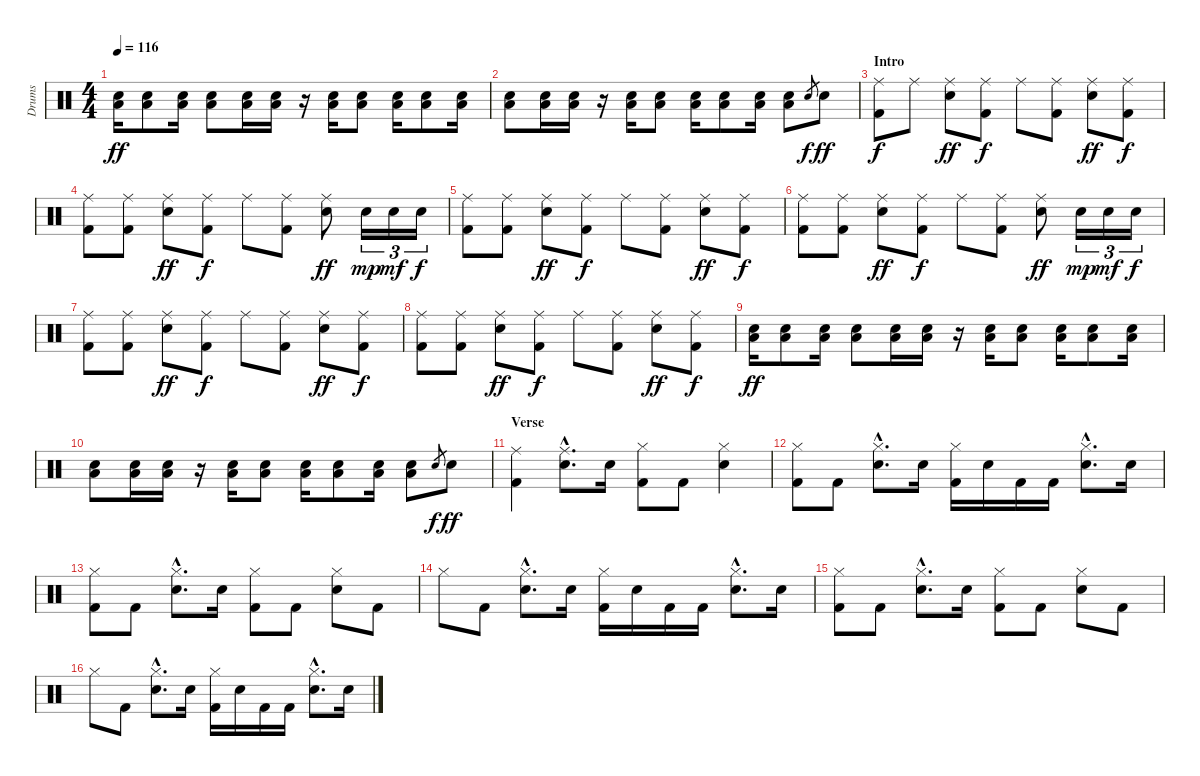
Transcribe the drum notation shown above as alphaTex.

\track ("Drums" "Drums") {instrument percussion}
\staff {score}
\articulation defaults
\ts (4 4)
\tempo 116
\clef neutral
\ks c
("Low Tom (hit)" "Electric Snare (hit)").16{dy ff volume 6} ("Low Tom (hit)" "Electric Snare (hit)").8 ("Low Tom (hit)" "Electric Snare (hit)").16 ("Low Tom (hit)" "Electric Snare (hit)").8{volume 12} ("Low Tom (hit)" "Electric Snare (hit)").16 ("Low Tom (hit)" "Electric Snare (hit)").16 r.16 ("Low Tom (hit)" "Electric Snare (hit)").16 ("Low Tom (hit)" "Electric Snare (hit)").8 ("Low Tom (hit)" "Electric Snare (hit)").16 ("Low Tom (hit)" "Electric Snare (hit)").8 ("Low Tom (hit)" "Electric Snare (hit)").16 |
("Low Tom (hit)" "Electric Snare (hit)").8 ("Low Tom (hit)" "Electric Snare (hit)").16 ("Low Tom (hit)" "Electric Snare (hit)").16 r.16 ("Low Tom (hit)" "Electric Snare (hit)").16 ("Low Tom (hit)" "Electric Snare (hit)").8 ("Low Tom (hit)" "Electric Snare (hit)").16 ("Low Tom (hit)" "Electric Snare (hit)").8 ("Low Tom (hit)" "Electric Snare (hit)").16 ("Low Tom (hit)" "Electric Snare (hit)").8 "Electric Snare (hit)".8{gr dy f} "Electric Snare (hit)".8{dy ff} |
\section ("" "Intro")
("Ride (middle)" "Kick (hit) 2").8{dy f} "Ride (middle)".8 ("Ride (middle)" "Electric Snare (hit)").8{dy ff} ("Ride (middle)" "Kick (hit) 2").8{dy f} "Ride (middle)".8 ("Ride (middle)" "Kick (hit) 2").8 ("Ride (middle)" "Electric Snare (hit)").8{dy ff} ("Ride (middle)" "Kick (hit) 2").8{dy f} |
("Ride (middle)" "Kick (hit) 2").8 ("Ride (middle)" "Kick (hit) 2").8 ("Ride (middle)" "Electric Snare (hit)").8{dy ff} ("Ride (middle)" "Kick (hit) 2").8{dy f} "Ride (middle)".8 ("Ride (middle)" "Kick (hit) 2").8 ("Ride (middle)" "Electric Snare (hit)").8{dy ff} "Electric Snare (hit)".16{tu (3 2) dy mp} "Electric Snare (hit)".16{tu (3 2) dy mf} "Electric Snare (hit)".16{tu (3 2) dy f} |
("Ride (middle)" "Kick (hit) 2").8 ("Ride (middle)" "Kick (hit) 2").8 ("Ride (middle)" "Electric Snare (hit)").8{dy ff} ("Ride (middle)" "Kick (hit) 2").8{dy f} "Ride (middle)".8 ("Ride (middle)" "Kick (hit) 2").8 ("Ride (middle)" "Electric Snare (hit)").8{dy ff} ("Ride (middle)" "Kick (hit) 2").8{dy f} |
("Ride (middle)" "Kick (hit) 2").8 ("Ride (middle)" "Kick (hit) 2").8 ("Ride (middle)" "Electric Snare (hit)").8{dy ff} ("Ride (middle)" "Kick (hit) 2").8{dy f} "Ride (middle)".8 ("Ride (middle)" "Kick (hit) 2").8 ("Ride (middle)" "Electric Snare (hit)").8{dy ff} "Electric Snare (hit)".16{tu (3 2) dy mp} "Electric Snare (hit)".16{tu (3 2) dy mf} "Electric Snare (hit)".16{tu (3 2) dy f} |
("Ride (middle)" "Kick (hit) 2").8 ("Ride (middle)" "Kick (hit) 2").8 ("Ride (middle)" "Electric Snare (hit)").8{dy ff} ("Ride (middle)" "Kick (hit) 2").8{dy f} "Ride (middle)".8 ("Ride (middle)" "Kick (hit) 2").8 ("Ride (middle)" "Electric Snare (hit)").8{dy ff} ("Ride (middle)" "Kick (hit) 2").8{dy f} |
("Ride (middle)" "Kick (hit) 2").8 ("Ride (middle)" "Kick (hit) 2").8 ("Ride (middle)" "Electric Snare (hit)").8{dy ff} ("Ride (middle)" "Kick (hit) 2").8{dy f} "Ride (middle)".8 ("Ride (middle)" "Kick (hit) 2").8 ("Ride (middle)" "Electric Snare (hit)").8{dy ff} ("Ride (middle)" "Kick (hit) 2").8{dy f} |
("Low Tom (hit)" "Electric Snare (hit)").16{dy ff} ("Low Tom (hit)" "Electric Snare (hit)").8 ("Low Tom (hit)" "Electric Snare (hit)").16 ("Low Tom (hit)" "Electric Snare (hit)").8 ("Low Tom (hit)" "Electric Snare (hit)").16 ("Low Tom (hit)" "Electric Snare (hit)").16 r.16 ("Low Tom (hit)" "Electric Snare (hit)").16 ("Low Tom (hit)" "Electric Snare (hit)").8 ("Low Tom (hit)" "Electric Snare (hit)").16 ("Low Tom (hit)" "Electric Snare (hit)").8 ("Low Tom (hit)" "Electric Snare (hit)").16 |
("Low Tom (hit)" "Electric Snare (hit)").8 ("Low Tom (hit)" "Electric Snare (hit)").16 ("Low Tom (hit)" "Electric Snare (hit)").16 r.16 ("Low Tom (hit)" "Electric Snare (hit)").16 ("Low Tom (hit)" "Electric Snare (hit)").8 ("Low Tom (hit)" "Electric Snare (hit)").16 ("Low Tom (hit)" "Electric Snare (hit)").8 ("Low Tom (hit)" "Electric Snare (hit)").16 ("Low Tom (hit)" "Electric Snare (hit)").8 "Electric Snare (hit)".8{gr dy f} "Electric Snare (hit)".8{dy ff} |
\section ("" "Verse")
("Ride (middle)" "Kick (hit) 2").4 ("Ride (middle)" "Electric Snare (hit)"{hac}).8{d} "Electric Snare (hit)".16 ("Hi-Hat (closed)" "Kick (hit) 2").8 "Kick (hit) 2".8 ("Hi-Hat (closed)" "Electric Snare (hit)").4 |
("Hi-Hat (closed)" "Kick (hit) 2").8 "Kick (hit) 2".8 ("Hi-Hat (closed)"{hac} "Electric Snare (hit)"{hac}).8{d} "Electric Snare (hit)".16 ("Hi-Hat (closed)" "Kick (hit) 2").16 "Electric Snare (hit)".16 "Kick (hit) 2".16 "Kick (hit) 2".16 ("Hi-Hat (closed)"{hac} "Electric Snare (hit)"{hac}).8{d} "Electric Snare (hit)".16 |
("Hi-Hat (closed)" "Kick (hit) 2").8 "Kick (hit) 2".8 ("Hi-Hat (closed)" "Electric Snare (hit)"{hac}).8{d} "Electric Snare (hit)".16 ("Hi-Hat (closed)" "Kick (hit) 2").8 "Kick (hit) 2".8 ("Hi-Hat (closed)" "Electric Snare (hit)").8 "Kick (hit) 2".8 |
"Hi-Hat (closed)".8 "Kick (hit) 2".8 ("Hi-Hat (closed)"{hac} "Electric Snare (hit)"{hac}).8{d} "Electric Snare (hit)".16 ("Hi-Hat (closed)" "Kick (hit) 2").16 "Electric Snare (hit)".16 "Kick (hit) 2".16 "Kick (hit) 2".16 ("Hi-Hat (closed)" "Electric Snare (hit)"{hac}).8{d} "Electric Snare (hit)".16 |
("Hi-Hat (closed)" "Kick (hit) 2").8 "Kick (hit) 2".8 ("Hi-Hat (closed)" "Electric Snare (hit)"{hac}).8{d} "Electric Snare (hit)".16 ("Hi-Hat (closed)" "Kick (hit) 2").8 "Kick (hit) 2".8 ("Hi-Hat (closed)" "Electric Snare (hit)").8 "Kick (hit) 2".8 |
"Hi-Hat (closed)".8 "Kick (hit) 2".8 ("Hi-Hat (closed)"{hac} "Electric Snare (hit)"{hac}).8{d} "Electric Snare (hit)".16 ("Hi-Hat (closed)" "Kick (hit) 2").16 "Electric Snare (hit)".16 "Kick (hit) 2".16 "Kick (hit) 2".16 ("Hi-Hat (closed)" "Electric Snare (hit)"{hac}).8{d} "Electric Snare (hit)".16
